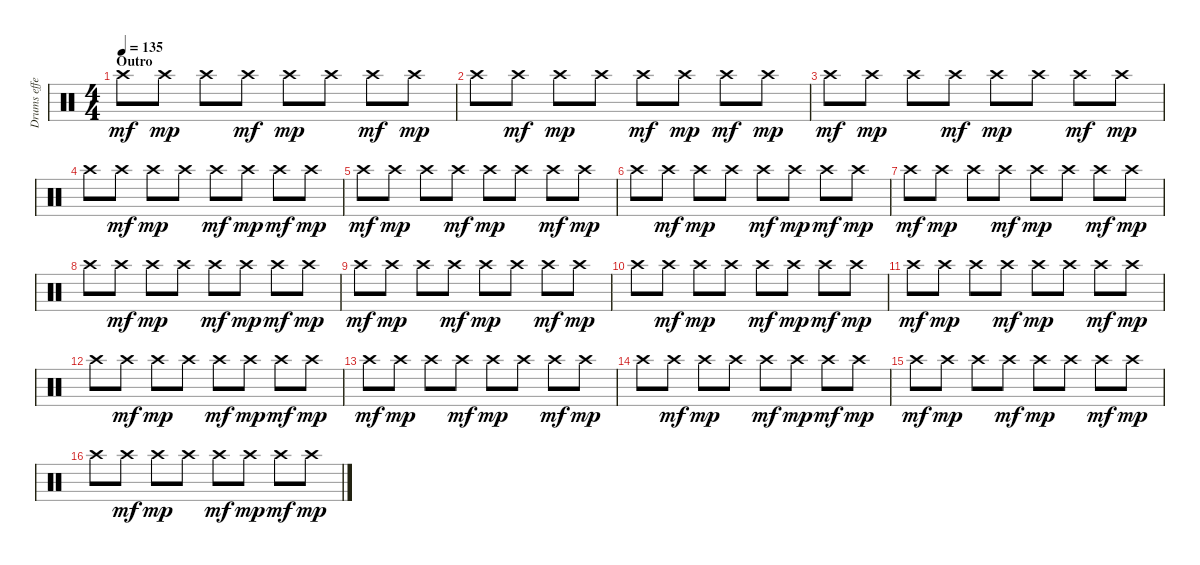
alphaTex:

\track ("Drums effects" "Drums effe") {instrument percussion}
\staff {score}
\articulation defaults
\ts (4 4)
\section ("" "Outro")
\tempo 135
\clef neutral
\ks c "Crash high (hit)".8{dy mf volume 5} "Crash high (hit)".8{dy mp} "Crash high (hit)".8 "Crash high (hit)".8{dy mf} "Crash high (hit)".8{dy mp} "Crash high (hit)".8 "Crash high (hit)".8{dy mf} "Crash high (hit)".8{dy mp}
|
"Crash high (hit)".8{volume 5} "Crash high (hit)".8{dy mf} "Crash high (hit)".8{dy mp} "Crash high (hit)".8 "Crash high (hit)".8{dy mf} "Crash high (hit)".8{dy mp} "Crash high (hit)".8{dy mf} "Crash high (hit)".8{dy mp} |
"Crash high (hit)".8{dy mf volume 5} "Crash high (hit)".8{dy mp} "Crash high (hit)".8 "Crash high (hit)".8{dy mf} "Crash high (hit)".8{dy mp} "Crash high (hit)".8 "Crash high (hit)".8{dy mf} "Crash high (hit)".8{dy mp} |
"Crash high (hit)".8{volume 5} "Crash high (hit)".8{dy mf} "Crash high (hit)".8{dy mp} "Crash high (hit)".8 "Crash high (hit)".8{dy mf} "Crash high (hit)".8{dy mp} "Crash high (hit)".8{dy mf} "Crash high (hit)".8{dy mp} |
"Crash high (hit)".8{dy mf volume 5} "Crash high (hit)".8{dy mp} "Crash high (hit)".8 "Crash high (hit)".8{dy mf} "Crash high (hit)".8{dy mp} "Crash high (hit)".8 "Crash high (hit)".8{dy mf} "Crash high (hit)".8{dy mp} |
"Crash high (hit)".8{volume 5} "Crash high (hit)".8{dy mf} "Crash high (hit)".8{dy mp} "Crash high (hit)".8 "Crash high (hit)".8{dy mf} "Crash high (hit)".8{dy mp} "Crash high (hit)".8{dy mf} "Crash high (hit)".8{dy mp} |
"Crash high (hit)".8{dy mf volume 5} "Crash high (hit)".8{dy mp} "Crash high (hit)".8 "Crash high (hit)".8{dy mf} "Crash high (hit)".8{dy mp} "Crash high (hit)".8 "Crash high (hit)".8{dy mf} "Crash high (hit)".8{dy mp} |
"Crash high (hit)".8{volume 5} "Crash high (hit)".8{dy mf} "Crash high (hit)".8{dy mp} "Crash high (hit)".8 "Crash high (hit)".8{dy mf} "Crash high (hit)".8{dy mp} "Crash high (hit)".8{dy mf} "Crash high (hit)".8{dy mp} |
"Crash high (hit)".8{dy mf volume 5} "Crash high (hit)".8{dy mp} "Crash high (hit)".8 "Crash high (hit)".8{dy mf} "Crash high (hit)".8{dy mp} "Crash high (hit)".8 "Crash high (hit)".8{dy mf} "Crash high (hit)".8{dy mp} |
"Crash high (hit)".8{volume 5} "Crash high (hit)".8{dy mf} "Crash high (hit)".8{dy mp} "Crash high (hit)".8 "Crash high (hit)".8{dy mf} "Crash high (hit)".8{dy mp} "Crash high (hit)".8{dy mf} "Crash high (hit)".8{dy mp} |
"Crash high (hit)".8{dy mf volume 5} "Crash high (hit)".8{dy mp} "Crash high (hit)".8 "Crash high (hit)".8{dy mf} "Crash high (hit)".8{dy mp} "Crash high (hit)".8 "Crash high (hit)".8{dy mf} "Crash high (hit)".8{dy mp} |
"Crash high (hit)".8{volume 5} "Crash high (hit)".8{dy mf} "Crash high (hit)".8{dy mp} "Crash high (hit)".8 "Crash high (hit)".8{dy mf} "Crash high (hit)".8{dy mp} "Crash high (hit)".8{dy mf} "Crash high (hit)".8{dy mp} |
"Crash high (hit)".8{dy mf volume 5} "Crash high (hit)".8{dy mp} "Crash high (hit)".8 "Crash high (hit)".8{dy mf} "Crash high (hit)".8{dy mp} "Crash high (hit)".8 "Crash high (hit)".8{dy mf} "Crash high (hit)".8{dy mp} |
"Crash high (hit)".8{volume 5} "Crash high (hit)".8{dy mf} "Crash high (hit)".8{dy mp} "Crash high (hit)".8 "Crash high (hit)".8{dy mf} "Crash high (hit)".8{dy mp} "Crash high (hit)".8{dy mf} "Crash high (hit)".8{dy mp} |
"Crash high (hit)".8{dy mf volume 5} "Crash high (hit)".8{dy mp} "Crash high (hit)".8 "Crash high (hit)".8{dy mf} "Crash high (hit)".8{dy mp} "Crash high (hit)".8 "Crash high (hit)".8{dy mf} "Crash high (hit)".8{dy mp} |
"Crash high (hit)".8{volume 5} "Crash high (hit)".8{dy mf} "Crash high (hit)".8{dy mp} "Crash high (hit)".8 "Crash high (hit)".8{dy mf} "Crash high (hit)".8{dy mp} "Crash high (hit)".8{dy mf} "Crash high (hit)".8{dy mp}
